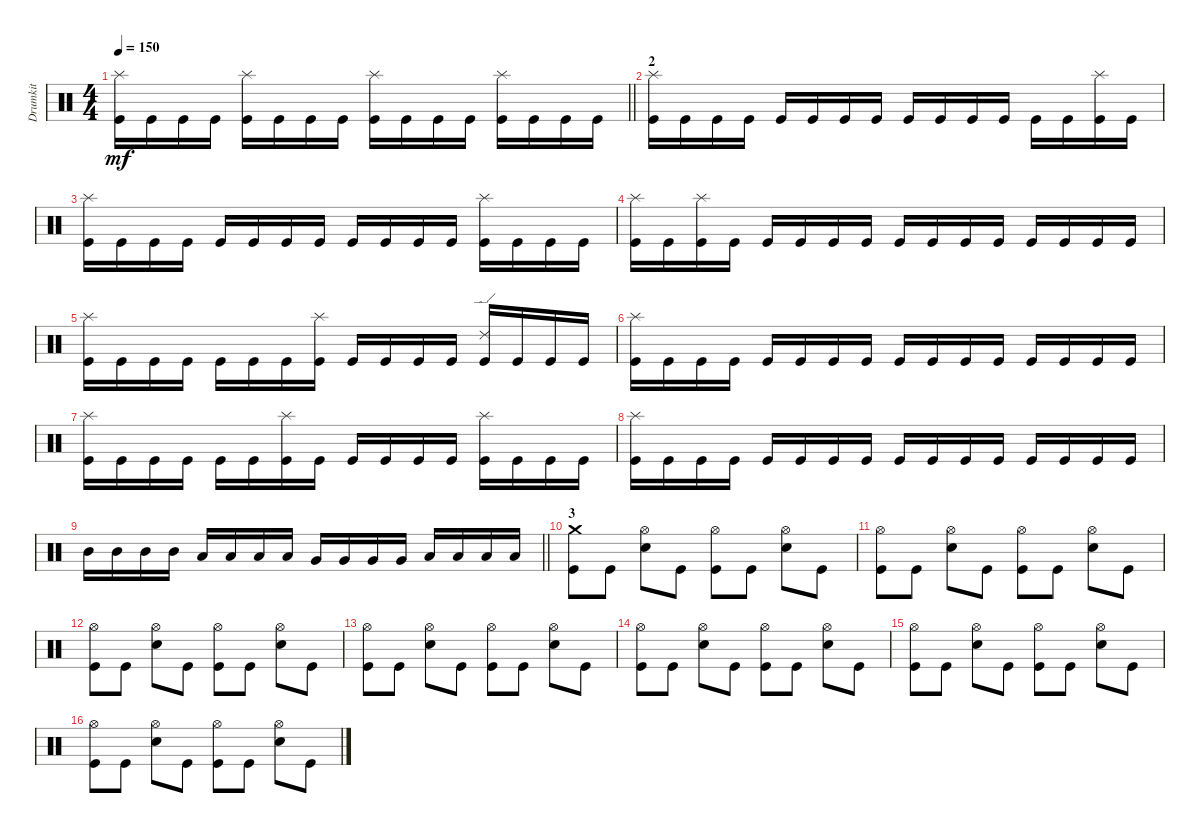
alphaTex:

\track ("Drumkit" "Drumkit") {instrument percussion}
\staff {score}
\articulation defaults
\ts (4 4)
\tempo 150
\clef neutral
\barLineRight lightlight
\ks c
("Kick (hit)" "Splash (hit)").16{dy mf} "Kick (hit)".16 "Kick (hit)".16 "Kick (hit)".16 ("Kick (hit)" "Splash (hit)").16 "Kick (hit)".16 "Kick (hit)".16 "Kick (hit)".16 ("Kick (hit)" "Splash (hit)").16 "Kick (hit)".16 "Kick (hit)".16 "Kick (hit)".16 ("Kick (hit)" "Splash (hit)").16 "Kick (hit)".16 "Kick (hit)".16 "Kick (hit)".16 |
\section ("" "2")
("Kick (hit)" "Splash (hit)").16 "Kick (hit)".16 "Kick (hit)".16 "Kick (hit)".16 "Kick (hit)".16 "Kick (hit)".16 "Kick (hit)".16 "Kick (hit)".16 "Kick (hit)".16 "Kick (hit)".16 "Kick (hit)".16 "Kick (hit)".16 "Kick (hit)".16 "Kick (hit)".16 ("Kick (hit)" "Splash (hit)").16 "Kick (hit)".16 |
("Kick (hit)" "Splash (hit)").16 "Kick (hit)".16 "Kick (hit)".16 "Kick (hit)".16 "Kick (hit)".16 "Kick (hit)".16 "Kick (hit)".16 "Kick (hit)".16 "Kick (hit)".16 "Kick (hit)".16 "Kick (hit)".16 "Kick (hit)".16 ("Kick (hit)" "Splash (hit)").16 "Kick (hit)".16 "Kick (hit)".16 "Kick (hit)".16 |
("Kick (hit)" "Splash (hit)").16 "Kick (hit)".16 ("Kick (hit)" "Splash (hit)").16 "Kick (hit)".16 "Kick (hit)".16 "Kick (hit)".16 "Kick (hit)".16 "Kick (hit)".16 "Kick (hit)".16 "Kick (hit)".16 "Kick (hit)".16 "Kick (hit)".16 "Kick (hit)".16 "Kick (hit)".16 "Kick (hit)".16 "Kick (hit)".16 |
("Kick (hit)" "Splash (hit)").16 "Kick (hit)".16 "Kick (hit)".16 "Kick (hit)".16 "Kick (hit)".16 "Kick (hit)".16 "Kick (hit)".16 ("Kick (hit)" "Splash (hit)").16 "Kick (hit)".16 "Kick (hit)".16 "Kick (hit)".16 "Kick (hit)".16 ("Kick (hit)" "Ride (edge) 2").16 "Kick (hit)".16 "Kick (hit)".16 "Kick (hit)".16 |
("Kick (hit)" "Splash (hit)").16 "Kick (hit)".16 "Kick (hit)".16 "Kick (hit)".16 "Kick (hit)".16 "Kick (hit)".16 "Kick (hit)".16 "Kick (hit)".16 "Kick (hit)".16 "Kick (hit)".16 "Kick (hit)".16 "Kick (hit)".16 "Kick (hit)".16 "Kick (hit)".16 "Kick (hit)".16 "Kick (hit)".16 |
("Kick (hit)" "Splash (hit)").16 "Kick (hit)".16 "Kick (hit)".16 "Kick (hit)".16 "Kick (hit)".16 "Kick (hit)".16 ("Kick (hit)" "Splash (hit)").16 "Kick (hit)".16 "Kick (hit)".16 "Kick (hit)".16 "Kick (hit)".16 "Kick (hit)".16 ("Kick (hit)" "Splash (hit)").16 "Kick (hit)".16 "Kick (hit)".16 "Kick (hit)".16 |
("Kick (hit)" "Splash (hit)").16 "Kick (hit)".16 "Kick (hit)".16 "Kick (hit)".16 "Kick (hit)".16 "Kick (hit)".16 "Kick (hit)".16 "Kick (hit)".16 "Kick (hit)".16 "Kick (hit)".16 "Kick (hit)".16 "Kick (hit)".16 "Kick (hit)".16 "Kick (hit)".16 "Kick (hit)".16 "Kick (hit)".16 |
\barLineRight lightlight "Mid Tom (hit)".16 "Mid Tom (hit)".16 "Mid Tom (hit)".16 "Mid Tom (hit)".16 "Low Tom (hit)".16 "Low Tom (hit)".16 "Low Tom (hit)".16 "Low Tom (hit)".16 "Very Low Tom (hit)".16 "Very Low Tom (hit)".16 "Very Low Tom (hit)".16 "Very Low Tom (hit)".16 "Low Floor Tom (hit)".16 "Low Floor Tom (hit)".16 "Low Floor Tom (hit)".16 "Low Floor Tom (hit)".16
|
\section ("" "3")
("Kick (hit)" "Crash medium (hit)").8 "Kick (hit)".8 ("Snare (hit) 2" "Hi-Hat (open)").8 "Kick (hit)".8 ("Kick (hit)" "Hi-Hat (open)").8 "Kick (hit)".8 ("Snare (hit) 2" "Hi-Hat (open)").8 "Kick (hit)".8 |
("Kick (hit)" "Hi-Hat (open)").8 "Kick (hit)".8 ("Snare (hit) 2" "Hi-Hat (open)").8 "Kick (hit)".8 ("Kick (hit)" "Hi-Hat (open)").8 "Kick (hit)".8 ("Snare (hit) 2" "Hi-Hat (open)").8 "Kick (hit)".8 |
("Kick (hit)" "Hi-Hat (open)").8 "Kick (hit)".8 ("Snare (hit) 2" "Hi-Hat (open)").8 "Kick (hit)".8 ("Kick (hit)" "Hi-Hat (open)").8 "Kick (hit)".8 ("Snare (hit) 2" "Hi-Hat (open)").8 "Kick (hit)".8 |
("Kick (hit)" "Hi-Hat (open)").8 "Kick (hit)".8 ("Snare (hit) 2" "Hi-Hat (open)").8 "Kick (hit)".8 ("Kick (hit)" "Hi-Hat (open)").8 "Kick (hit)".8 ("Snare (hit) 2" "Hi-Hat (open)").8 "Kick (hit)".8 |
("Kick (hit)" "Hi-Hat (open)").8 "Kick (hit)".8 ("Snare (hit) 2" "Hi-Hat (open)").8 "Kick (hit)".8 ("Kick (hit)" "Hi-Hat (open)").8 "Kick (hit)".8 ("Snare (hit) 2" "Hi-Hat (open)").8 "Kick (hit)".8 |
("Kick (hit)" "Hi-Hat (open)").8 "Kick (hit)".8 ("Snare (hit) 2" "Hi-Hat (open)").8 "Kick (hit)".8 ("Kick (hit)" "Hi-Hat (open)").8 "Kick (hit)".8 ("Snare (hit) 2" "Hi-Hat (open)").8 "Kick (hit)".8 |
("Kick (hit)" "Hi-Hat (open)").8 "Kick (hit)".8 ("Snare (hit) 2" "Hi-Hat (open)").8 "Kick (hit)".8 ("Kick (hit)" "Hi-Hat (open)").8 "Kick (hit)".8 ("Snare (hit) 2" "Hi-Hat (open)").8 "Kick (hit)".8
